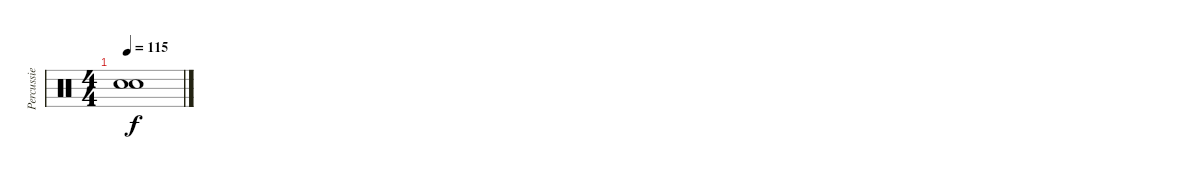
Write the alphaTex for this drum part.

\track ("Percussie" "Percussie") {instrument percussion}
\staff {score}
\articulation defaults
\ts (4 4)
\tempo 115
\clef neutral
\ks c
("Snare (hit)"{t} "Snare (hit)"{t}).1{dy f}
